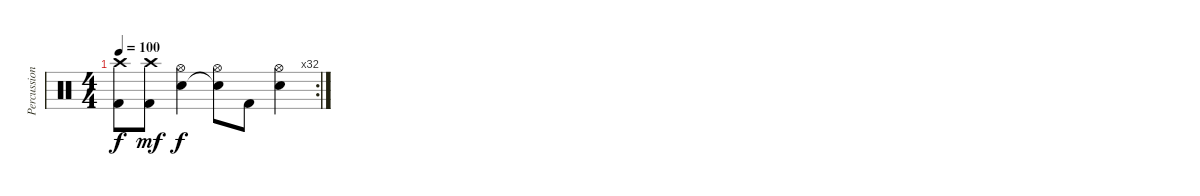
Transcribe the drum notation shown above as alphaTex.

\track ("Percussion" "Percussion") {instrument percussion}
\staff {score}
\articulation defaults
\rc 32
\ts (4 4)
\tempo 100
\clef neutral
\ks c
("Crash high (hit)" "Kick (hit) 2").8{dy f} ("Crash high (hit)" "Kick (hit) 2").8{dy mf} ("Hi-Hat (open)" "Snare (hit) 2").4{dy f} ("Hi-Hat (open)" "Snare (hit) 2"{t}).8 "Kick (hit) 2".8 ("Hi-Hat (open)" "Snare (hit) 2").4
